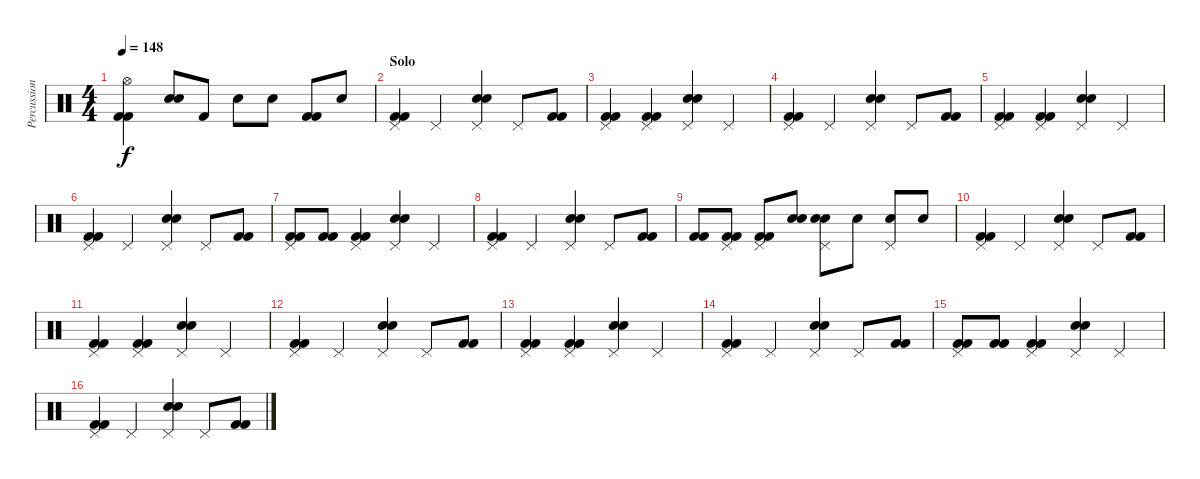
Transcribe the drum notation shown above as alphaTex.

\track ("Percussion" "Percussion") {instrument percussion}
\staff {score}
\articulation defaults
\ts (4 4)
\tempo 148
\clef neutral
\ks c
("Hi-Hat (open)" "Kick (hit) 2" "Kick (hit) 2").4{dy f} ("Electric Snare (hit)" "Electric Snare (hit)").8{bd 240} "Kick (hit) 2".8 "Electric Snare (hit)".8 "Electric Snare (hit)".8 ("Kick (hit) 2" "Kick (hit) 2").8 "Electric Snare (hit)".8 |
\section ("" "Solo")
("Pedal Hi-Hat (hit)" "Kick (hit) 2" "Kick (hit) 2").4 "Pedal Hi-Hat (hit)".4 ("Hand Clap (hit)" "Pedal Hi-Hat (hit)" "Snare (hit) 2").4 "Pedal Hi-Hat (hit)".8 ("Kick (hit) 2" "Kick (hit) 2").8 |
("Pedal Hi-Hat (hit)" "Kick (hit) 2" "Kick (hit) 2").4 ("Pedal Hi-Hat (hit)" "Kick (hit) 2" "Kick (hit) 2").4 ("Hand Clap (hit)" "Pedal Hi-Hat (hit)" "Snare (hit) 2").4 "Pedal Hi-Hat (hit)".4 |
("Pedal Hi-Hat (hit)" "Kick (hit) 2" "Kick (hit) 2").4 "Pedal Hi-Hat (hit)".4 ("Hand Clap (hit)" "Pedal Hi-Hat (hit)" "Snare (hit) 2").4 "Pedal Hi-Hat (hit)".8 ("Kick (hit) 2" "Kick (hit) 2").8 |
("Pedal Hi-Hat (hit)" "Kick (hit) 2" "Kick (hit) 2").4 ("Pedal Hi-Hat (hit)" "Kick (hit) 2" "Kick (hit) 2").4 ("Hand Clap (hit)" "Pedal Hi-Hat (hit)" "Snare (hit) 2").4 "Pedal Hi-Hat (hit)".4 |
("Pedal Hi-Hat (hit)" "Kick (hit) 2" "Kick (hit) 2").4 "Pedal Hi-Hat (hit)".4 ("Hand Clap (hit)" "Pedal Hi-Hat (hit)" "Snare (hit) 2").4 "Pedal Hi-Hat (hit)".8 ("Kick (hit) 2" "Kick (hit) 2").8 |
("Pedal Hi-Hat (hit)" "Kick (hit) 2" "Kick (hit) 2").8 ("Kick (hit) 2" "Kick (hit) 2").8 ("Pedal Hi-Hat (hit)" "Kick (hit) 2" "Kick (hit) 2").4 ("Hand Clap (hit)" "Pedal Hi-Hat (hit)" "Snare (hit) 2").4 "Pedal Hi-Hat (hit)".4 |
("Pedal Hi-Hat (hit)" "Kick (hit) 2" "Kick (hit) 2").4 "Pedal Hi-Hat (hit)".4 ("Hand Clap (hit)" "Pedal Hi-Hat (hit)" "Snare (hit) 2").4 "Pedal Hi-Hat (hit)".8 ("Kick (hit) 2" "Kick (hit) 2").8 |
("Kick (hit) 2" "Kick (hit) 2").8 ("Pedal Hi-Hat (hit)" "Kick (hit) 2" "Kick (hit) 2").8 ("Pedal Hi-Hat (hit)" "Kick (hit) 2" "Kick (hit) 2").8 ("Electric Snare (hit)" "Electric Snare (hit)").8{bd 480} ("Hand Clap (hit)" "Pedal Hi-Hat (hit)" "Electric Snare (hit)").8 "Electric Snare (hit)".8 ("Pedal Hi-Hat (hit)" "Electric Snare (hit)").8 "Electric Snare (hit)".8 |
("Pedal Hi-Hat (hit)" "Kick (hit) 2" "Kick (hit) 2").4 "Pedal Hi-Hat (hit)".4 ("Hand Clap (hit)" "Pedal Hi-Hat (hit)" "Snare (hit) 2").4 "Pedal Hi-Hat (hit)".8 ("Kick (hit) 2" "Kick (hit) 2").8 |
("Pedal Hi-Hat (hit)" "Kick (hit) 2" "Kick (hit) 2").4 ("Pedal Hi-Hat (hit)" "Kick (hit) 2" "Kick (hit) 2").4 ("Hand Clap (hit)" "Pedal Hi-Hat (hit)" "Snare (hit) 2").4 "Pedal Hi-Hat (hit)".4 |
("Pedal Hi-Hat (hit)" "Kick (hit) 2" "Kick (hit) 2").4 "Pedal Hi-Hat (hit)".4 ("Hand Clap (hit)" "Pedal Hi-Hat (hit)" "Snare (hit) 2").4 "Pedal Hi-Hat (hit)".8 ("Kick (hit) 2" "Kick (hit) 2").8 |
("Pedal Hi-Hat (hit)" "Kick (hit) 2" "Kick (hit) 2").4 ("Pedal Hi-Hat (hit)" "Kick (hit) 2" "Kick (hit) 2").4 ("Hand Clap (hit)" "Pedal Hi-Hat (hit)" "Snare (hit) 2").4 "Pedal Hi-Hat (hit)".4 |
("Pedal Hi-Hat (hit)" "Kick (hit) 2" "Kick (hit) 2").4 "Pedal Hi-Hat (hit)".4 ("Hand Clap (hit)" "Pedal Hi-Hat (hit)" "Snare (hit) 2").4 "Pedal Hi-Hat (hit)".8 ("Kick (hit) 2" "Kick (hit) 2").8 |
("Pedal Hi-Hat (hit)" "Kick (hit) 2" "Kick (hit) 2").8 ("Kick (hit) 2" "Kick (hit) 2").8 ("Pedal Hi-Hat (hit)" "Kick (hit) 2" "Kick (hit) 2").4 ("Hand Clap (hit)" "Pedal Hi-Hat (hit)" "Snare (hit) 2").4 "Pedal Hi-Hat (hit)".4 |
("Pedal Hi-Hat (hit)" "Kick (hit) 2" "Kick (hit) 2").4 "Pedal Hi-Hat (hit)".4 ("Hand Clap (hit)" "Pedal Hi-Hat (hit)" "Snare (hit) 2").4 "Pedal Hi-Hat (hit)".8 ("Kick (hit) 2" "Kick (hit) 2").8
